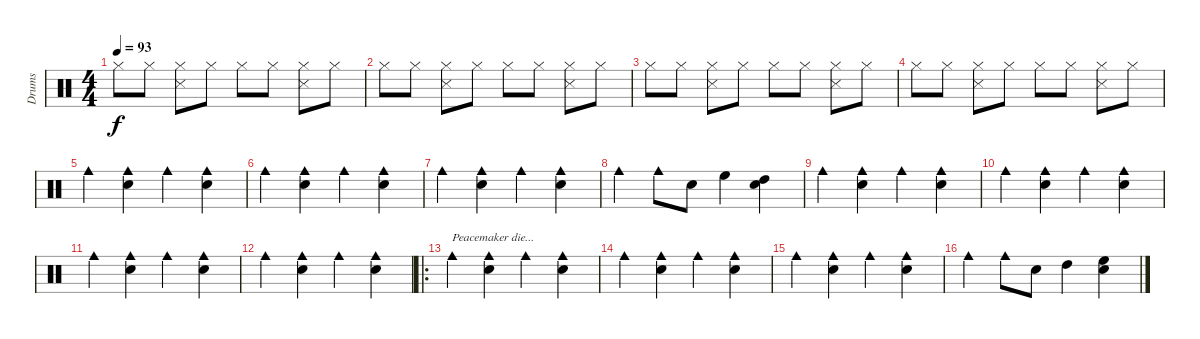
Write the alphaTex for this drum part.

\track ("Drums" "Drums") {instrument percussion}
\staff {score}
\articulation defaults
\ts (4 4)
\tempo 93
\clef neutral
\ks c "Hi-Hat (closed)".8{dy f} "Hi-Hat (closed)".8
("Hi-Hat (closed)" "Snare (side stick) 3").8 "Hi-Hat (closed)".8 "Hi-Hat (closed)".8 "Hi-Hat (closed)".8 ("Hi-Hat (closed)" "Snare (side stick) 3").8 "Hi-Hat (closed)".8 |
"Hi-Hat (closed)".8 "Hi-Hat (closed)".8 ("Hi-Hat (closed)" "Snare (side stick) 3").8 "Hi-Hat (closed)".8 "Hi-Hat (closed)".8 "Hi-Hat (closed)".8 ("Hi-Hat (closed)" "Snare (side stick) 3").8 "Hi-Hat (closed)".8 |
"Hi-Hat (closed)".8 "Hi-Hat (closed)".8 ("Hi-Hat (closed)" "Snare (side stick) 3").8 "Hi-Hat (closed)".8 "Hi-Hat (closed)".8 "Hi-Hat (closed)".8 ("Hi-Hat (closed)" "Snare (side stick) 3").8 "Hi-Hat (closed)".8 |
"Hi-Hat (closed)".8 "Hi-Hat (closed)".8 ("Hi-Hat (closed)" "Snare (side stick) 3").8 "Hi-Hat (closed)".8 "Hi-Hat (closed)".8 "Hi-Hat (closed)".8 ("Hi-Hat (closed)" "Snare (side stick) 3").8 "Hi-Hat (closed)".8 |
"Cowbell medium (hit)".4 ("Cowbell medium (hit)" "Electric Snare (hit)").4 "Cowbell medium (hit)".4 ("Cowbell medium (hit)" "Electric Snare (hit)").4 |
"Cowbell medium (hit)".4 ("Cowbell medium (hit)" "Electric Snare (hit)").4 "Cowbell medium (hit)".4 ("Cowbell medium (hit)" "Electric Snare (hit)").4 |
"Cowbell medium (hit)".4 ("Cowbell medium (hit)" "Electric Snare (hit)").4 "Cowbell medium (hit)".4 ("Cowbell medium (hit)" "Electric Snare (hit)").4 |
"Cowbell medium (hit)".4 "Cowbell medium (hit)".8 "Electric Snare (hit)".8 "High Floor Tom (hit)".4 ("Electric Snare (hit)" "High Tom (hit)").4 |
"Cowbell medium (hit)".4 ("Cowbell medium (hit)" "Electric Snare (hit)").4 "Cowbell medium (hit)".4 ("Cowbell medium (hit)" "Electric Snare (hit)").4 |
"Cowbell medium (hit)".4 ("Cowbell medium (hit)" "Electric Snare (hit)").4 "Cowbell medium (hit)".4 ("Cowbell medium (hit)" "Electric Snare (hit)").4 |
"Cowbell medium (hit)".4 ("Cowbell medium (hit)" "Electric Snare (hit)").4 "Cowbell medium (hit)".4 ("Cowbell medium (hit)" "Electric Snare (hit)").4 |
"Cowbell medium (hit)".4 ("Cowbell medium (hit)" "Electric Snare (hit)").4 "Cowbell medium (hit)".4 ("Cowbell medium (hit)" "Electric Snare (hit)").4 |
\ro "Cowbell medium (hit)".4{txt "Peacemaker die..."}
("Cowbell medium (hit)" "Electric Snare (hit)").4 "Cowbell medium (hit)".4 ("Cowbell medium (hit)" "Electric Snare (hit)").4 |
"Cowbell medium (hit)".4 ("Cowbell medium (hit)" "Electric Snare (hit)").4 "Cowbell medium (hit)".4 ("Cowbell medium (hit)" "Electric Snare (hit)").4 |
"Cowbell medium (hit)".4 ("Cowbell medium (hit)" "Electric Snare (hit)").4 "Cowbell medium (hit)".4 ("Cowbell medium (hit)" "Electric Snare (hit)").4 |
"Cowbell medium (hit)".4 "Cowbell medium (hit)".8 "Electric Snare (hit)".8 "High Tom (hit)".4 ("Electric Snare (hit)" "High Floor Tom (hit)").4
